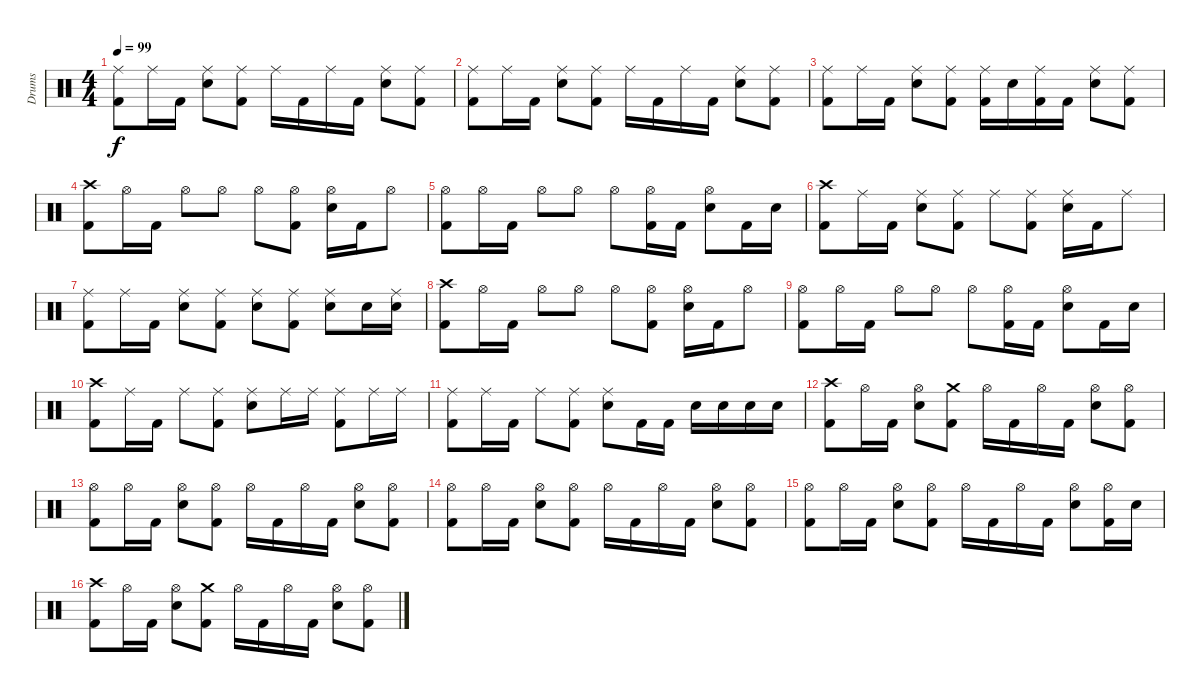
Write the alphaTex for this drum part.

\track ("Drums" "Drums") {instrument percussion}
\staff {score}
\articulation defaults
\ts (4 4)
\tempo 99
\clef neutral
\ks c
("Ride (middle)" "Kick (hit) 2").8{dy f} "Ride (middle)".16 "Kick (hit) 2".16 ("Ride (middle)" "Snare (hit) 2").8 ("Ride (middle)" "Kick (hit) 2").8 "Ride (middle)".16 "Kick (hit) 2".16 "Ride (middle)".16 "Kick (hit) 2".16 ("Ride (middle)" "Snare (hit) 2").8 ("Ride (middle)" "Kick (hit) 2").8 |
("Ride (middle)" "Kick (hit) 2").8 "Ride (middle)".16 "Kick (hit) 2".16 ("Ride (middle)" "Snare (hit) 2").8 ("Ride (middle)" "Kick (hit) 2").8 "Ride (middle)".16 "Kick (hit) 2".16 "Ride (middle)".16 "Kick (hit) 2".16 ("Ride (middle)" "Snare (hit) 2").8 ("Ride (middle)" "Kick (hit) 2").8 |
("Ride (middle)" "Kick (hit) 2").8 "Ride (middle)".16 "Kick (hit) 2".16 ("Ride (middle)" "Snare (hit) 2").8 ("Ride (middle)" "Kick (hit) 2").8 ("Ride (middle)" "Kick (hit) 2").16 "Snare (hit) 2".16 ("Ride (middle)" "Kick (hit) 2").16 "Kick (hit) 2".16 ("Ride (middle)" "Snare (hit) 2").8 ("Ride (middle)" "Kick (hit) 2").8 |
("Crash high (hit)" "Kick (hit) 2").8 "Hi-Hat (open)".16 "Kick (hit) 2".16 "Hi-Hat (open)".8 "Hi-Hat (open)".8 "Hi-Hat (open)".8 ("Hi-Hat (open)" "Kick (hit) 2").8 ("Hi-Hat (open)" "Snare (hit) 2").16 "Kick (hit) 2".16 "Hi-Hat (open)".8 |
("Hi-Hat (open)" "Kick (hit) 2").8 "Hi-Hat (open)".16 "Kick (hit) 2".16 "Hi-Hat (open)".8 "Hi-Hat (open)".8 "Hi-Hat (open)".8 ("Hi-Hat (open)" "Kick (hit) 2").16 "Kick (hit) 2".16 ("Hi-Hat (open)" "Snare (hit) 2").8 "Kick (hit) 2".16 "Snare (hit) 2".16 |
("Crash high (hit)" "Kick (hit) 2").8 "Ride (middle)".16 "Kick (hit) 2".16 ("Ride (middle)" "Snare (hit) 2").8 ("Ride (middle)" "Kick (hit) 2").8 "Ride (middle)".8 ("Ride (middle)" "Kick (hit) 2").8 ("Ride (middle)" "Snare (hit) 2").16 "Kick (hit) 2".16 "Ride (middle)".8 |
("Ride (middle)" "Kick (hit) 2").8 "Ride (middle)".16 "Kick (hit) 2".16 ("Ride (middle)" "Snare (hit) 2").8 ("Ride (middle)" "Kick (hit) 2").8 ("Ride (middle)" "Snare (hit) 2").8 ("Ride (middle)" "Kick (hit) 2").8 ("Ride (middle)" "Snare (hit) 2").8 "Snare (hit) 2".16 ("Ride (middle)" "Snare (hit) 2").16 |
("Crash high (hit)" "Kick (hit) 2").8 "Hi-Hat (open)".16 "Kick (hit) 2".16 "Hi-Hat (open)".8 "Hi-Hat (open)".8 "Hi-Hat (open)".8 ("Hi-Hat (open)" "Kick (hit) 2").8 ("Hi-Hat (open)" "Snare (hit) 2").16 "Kick (hit) 2".16 "Hi-Hat (open)".8 |
("Hi-Hat (open)" "Kick (hit) 2").8 "Hi-Hat (open)".16 "Kick (hit) 2".16 "Hi-Hat (open)".8 "Hi-Hat (open)".8 "Hi-Hat (open)".8 ("Hi-Hat (open)" "Kick (hit) 2").16 "Kick (hit) 2".16 ("Hi-Hat (open)" "Snare (hit) 2").8 "Kick (hit) 2".16 "Snare (hit) 2".16 |
("Crash high (hit)" "Kick (hit) 2").8 "Ride (middle)".16 "Kick (hit) 2".16 "Ride (middle)".8 ("Ride (middle)" "Kick (hit) 2").8 ("Ride (middle)" "Snare (hit) 2").8 "Ride (middle)".16 "Ride (middle)".16 ("Ride (middle)" "Kick (hit) 2").8 "Ride (middle)".16 "Ride (middle)".16 |
("Ride (middle)" "Kick (hit) 2").8 "Ride (middle)".16 "Kick (hit) 2".16 "Ride (middle)".8 ("Ride (middle)" "Kick (hit) 2").8 ("Ride (middle)" "Snare (hit) 2").8 "Kick (hit) 2".16 "Kick (hit) 2".16 "Snare (hit) 2".16 "Snare (hit) 2".16 "Snare (hit) 2".16 "Snare (hit) 2".16 |
("Crash high (hit)" "Kick (hit) 2").8 "Hi-Hat (open)".16 "Kick (hit) 2".16 ("Hi-Hat (open)" "Snare (hit) 2").8 ("Crash medium (hit)" "Kick (hit) 2").8 "Hi-Hat (open)".16 "Kick (hit) 2".16 "Hi-Hat (open)".16 "Kick (hit) 2".16 ("Hi-Hat (open)" "Snare (hit) 2").8 ("Hi-Hat (open)" "Kick (hit) 2").8 |
("Hi-Hat (open)" "Kick (hit) 2").8 "Hi-Hat (open)".16 "Kick (hit) 2".16 ("Hi-Hat (open)" "Snare (hit) 2").8 ("Hi-Hat (open)" "Kick (hit) 2").8 "Hi-Hat (open)".16 "Kick (hit) 2".16 "Hi-Hat (open)".16 "Kick (hit) 2".16 ("Hi-Hat (open)" "Snare (hit) 2").8 ("Hi-Hat (open)" "Kick (hit) 2").8 |
("Hi-Hat (open)" "Kick (hit) 2").8 "Hi-Hat (open)".16 "Kick (hit) 2".16 ("Hi-Hat (open)" "Snare (hit) 2").8 ("Hi-Hat (open)" "Kick (hit) 2").8 "Hi-Hat (open)".16 "Kick (hit) 2".16 "Hi-Hat (open)".16 "Kick (hit) 2".16 ("Hi-Hat (open)" "Snare (hit) 2").8 ("Hi-Hat (open)" "Kick (hit) 2").8 |
("Hi-Hat (open)" "Kick (hit) 2").8 "Hi-Hat (open)".16 "Kick (hit) 2".16 ("Hi-Hat (open)" "Snare (hit) 2").8 ("Hi-Hat (open)" "Kick (hit) 2").8 "Hi-Hat (open)".16 "Kick (hit) 2".16 "Hi-Hat (open)".16 "Kick (hit) 2".16 ("Hi-Hat (open)" "Snare (hit) 2").8 ("Hi-Hat (open)" "Kick (hit) 2").16 "Snare (hit) 2".16 |
("Crash high (hit)" "Kick (hit) 2").8 "Hi-Hat (open)".16 "Kick (hit) 2".16 ("Hi-Hat (open)" "Snare (hit) 2").8 ("Crash medium (hit)" "Kick (hit) 2").8 "Hi-Hat (open)".16 "Kick (hit) 2".16 "Hi-Hat (open)".16 "Kick (hit) 2".16 ("Hi-Hat (open)" "Snare (hit) 2").8 ("Hi-Hat (open)" "Kick (hit) 2").8
